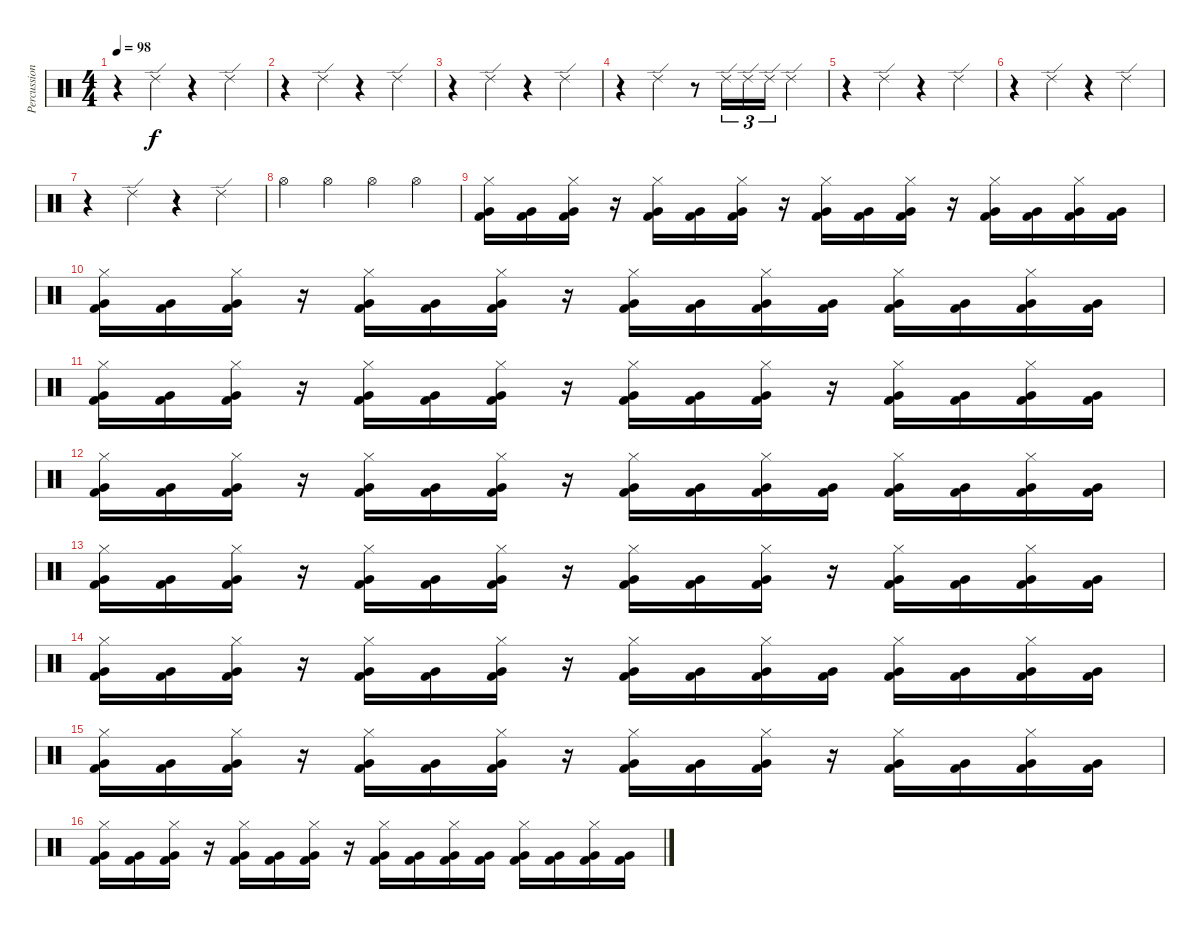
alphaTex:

\track ("Percussion" "Percussion") {instrument percussion}
\staff {score}
\articulation defaults
\ts (4 4)
\tempo 98
\clef neutral
\ks c
r.4{dy f} "Ride (edge) 2".4 r.4 "Ride (edge) 2".4 |
r.4 "Ride (edge) 2".4 r.4 "Ride (edge) 2".4 |
r.4 "Ride (edge) 2".4 r.4 "Ride (edge) 2".4 |
r.4 "Ride (edge) 2".4 r.8 "Ride (edge) 2".16{tu (3 2)} "Ride (edge) 2".16{tu (3 2)} "Ride (edge) 2".16{tu (3 2)} "Ride (edge) 2".4 |
r.4 "Ride (edge) 2".4 r.4 "Ride (edge) 2".4 |
r.4 "Ride (edge) 2".4 r.4 "Ride (edge) 2".4 |
r.4 "Ride (edge) 2".4 r.4 "Ride (edge) 2".4 |
"Hi-Hat (open)".4 "Hi-Hat (open)".4 "Hi-Hat (open)".4 "Hi-Hat (open)".4 |
("Hi-Hat (closed)" "Very Low Tom (hit)" "Kick (hit) 2").16 ("Very Low Tom (hit)" "Kick (hit) 2").16 ("Hi-Hat (closed)" "Very Low Tom (hit)" "Kick (hit) 2").16 r.16 ("Hi-Hat (closed)" "Very Low Tom (hit)" "Kick (hit) 2").16 ("Very Low Tom (hit)" "Kick (hit) 2").16 ("Hi-Hat (closed)" "Very Low Tom (hit)" "Kick (hit) 2").16 r.16 ("Hi-Hat (closed)" "Very Low Tom (hit)" "Kick (hit) 2").16 ("Very Low Tom (hit)" "Kick (hit) 2").16 ("Hi-Hat (closed)" "Very Low Tom (hit)" "Kick (hit) 2").16 r.16 ("Hi-Hat (closed)" "Very Low Tom (hit)" "Kick (hit) 2").16 ("Very Low Tom (hit)" "Kick (hit) 2").16 ("Hi-Hat (closed)" "Very Low Tom (hit)" "Kick (hit) 2").16 ("Very Low Tom (hit)" "Kick (hit) 2").16 |
("Hi-Hat (closed)" "Very Low Tom (hit)" "Kick (hit) 2").16 ("Very Low Tom (hit)" "Kick (hit) 2").16 ("Hi-Hat (closed)" "Very Low Tom (hit)" "Kick (hit) 2").16 r.16 ("Hi-Hat (closed)" "Very Low Tom (hit)" "Kick (hit) 2").16 ("Very Low Tom (hit)" "Kick (hit) 2").16 ("Hi-Hat (closed)" "Very Low Tom (hit)" "Kick (hit) 2").16 r.16 ("Hi-Hat (closed)" "Very Low Tom (hit)" "Kick (hit) 2").16 ("Very Low Tom (hit)" "Kick (hit) 2").16 ("Hi-Hat (closed)" "Very Low Tom (hit)" "Kick (hit) 2").16 ("Very Low Tom (hit)" "Kick (hit) 2").16 ("Hi-Hat (closed)" "Very Low Tom (hit)" "Kick (hit) 2").16 ("Very Low Tom (hit)" "Kick (hit) 2").16 ("Hi-Hat (closed)" "Very Low Tom (hit)" "Kick (hit) 2").16 ("Very Low Tom (hit)" "Kick (hit) 2").16 |
("Hi-Hat (closed)" "Very Low Tom (hit)" "Kick (hit) 2").16 ("Very Low Tom (hit)" "Kick (hit) 2").16 ("Hi-Hat (closed)" "Very Low Tom (hit)" "Kick (hit) 2").16 r.16 ("Hi-Hat (closed)" "Very Low Tom (hit)" "Kick (hit) 2").16 ("Very Low Tom (hit)" "Kick (hit) 2").16 ("Hi-Hat (closed)" "Very Low Tom (hit)" "Kick (hit) 2").16 r.16 ("Hi-Hat (closed)" "Very Low Tom (hit)" "Kick (hit) 2").16 ("Very Low Tom (hit)" "Kick (hit) 2").16 ("Hi-Hat (closed)" "Very Low Tom (hit)" "Kick (hit) 2").16 r.16 ("Hi-Hat (closed)" "Very Low Tom (hit)" "Kick (hit) 2").16 ("Very Low Tom (hit)" "Kick (hit) 2").16 ("Hi-Hat (closed)" "Very Low Tom (hit)" "Kick (hit) 2").16 ("Very Low Tom (hit)" "Kick (hit) 2").16 |
("Hi-Hat (closed)" "Very Low Tom (hit)" "Kick (hit) 2").16 ("Very Low Tom (hit)" "Kick (hit) 2").16 ("Hi-Hat (closed)" "Very Low Tom (hit)" "Kick (hit) 2").16 r.16 ("Hi-Hat (closed)" "Very Low Tom (hit)" "Kick (hit) 2").16 ("Very Low Tom (hit)" "Kick (hit) 2").16 ("Hi-Hat (closed)" "Very Low Tom (hit)" "Kick (hit) 2").16 r.16 ("Hi-Hat (closed)" "Very Low Tom (hit)" "Kick (hit) 2").16 ("Very Low Tom (hit)" "Kick (hit) 2").16 ("Hi-Hat (closed)" "Very Low Tom (hit)" "Kick (hit) 2").16 ("Very Low Tom (hit)" "Kick (hit) 2").16 ("Hi-Hat (closed)" "Very Low Tom (hit)" "Kick (hit) 2").16 ("Very Low Tom (hit)" "Kick (hit) 2").16 ("Hi-Hat (closed)" "Very Low Tom (hit)" "Kick (hit) 2").16 ("Very Low Tom (hit)" "Kick (hit) 2").16 |
("Hi-Hat (closed)" "Very Low Tom (hit)" "Kick (hit) 2").16 ("Very Low Tom (hit)" "Kick (hit) 2").16 ("Hi-Hat (closed)" "Very Low Tom (hit)" "Kick (hit) 2").16 r.16 ("Hi-Hat (closed)" "Very Low Tom (hit)" "Kick (hit) 2").16 ("Very Low Tom (hit)" "Kick (hit) 2").16 ("Hi-Hat (closed)" "Very Low Tom (hit)" "Kick (hit) 2").16 r.16 ("Hi-Hat (closed)" "Very Low Tom (hit)" "Kick (hit) 2").16 ("Very Low Tom (hit)" "Kick (hit) 2").16 ("Hi-Hat (closed)" "Very Low Tom (hit)" "Kick (hit) 2").16 r.16 ("Hi-Hat (closed)" "Very Low Tom (hit)" "Kick (hit) 2").16 ("Very Low Tom (hit)" "Kick (hit) 2").16 ("Hi-Hat (closed)" "Very Low Tom (hit)" "Kick (hit) 2").16 ("Very Low Tom (hit)" "Kick (hit) 2").16 |
("Hi-Hat (closed)" "Very Low Tom (hit)" "Kick (hit) 2").16 ("Very Low Tom (hit)" "Kick (hit) 2").16 ("Hi-Hat (closed)" "Very Low Tom (hit)" "Kick (hit) 2").16 r.16 ("Hi-Hat (closed)" "Very Low Tom (hit)" "Kick (hit) 2").16 ("Very Low Tom (hit)" "Kick (hit) 2").16 ("Hi-Hat (closed)" "Very Low Tom (hit)" "Kick (hit) 2").16 r.16 ("Hi-Hat (closed)" "Very Low Tom (hit)" "Kick (hit) 2").16 ("Very Low Tom (hit)" "Kick (hit) 2").16 ("Hi-Hat (closed)" "Very Low Tom (hit)" "Kick (hit) 2").16 ("Very Low Tom (hit)" "Kick (hit) 2").16 ("Hi-Hat (closed)" "Very Low Tom (hit)" "Kick (hit) 2").16 ("Very Low Tom (hit)" "Kick (hit) 2").16 ("Hi-Hat (closed)" "Very Low Tom (hit)" "Kick (hit) 2").16 ("Very Low Tom (hit)" "Kick (hit) 2").16 |
("Hi-Hat (closed)" "Very Low Tom (hit)" "Kick (hit) 2").16 ("Very Low Tom (hit)" "Kick (hit) 2").16 ("Hi-Hat (closed)" "Very Low Tom (hit)" "Kick (hit) 2").16 r.16 ("Hi-Hat (closed)" "Very Low Tom (hit)" "Kick (hit) 2").16 ("Very Low Tom (hit)" "Kick (hit) 2").16 ("Hi-Hat (closed)" "Very Low Tom (hit)" "Kick (hit) 2").16 r.16 ("Hi-Hat (closed)" "Very Low Tom (hit)" "Kick (hit) 2").16 ("Very Low Tom (hit)" "Kick (hit) 2").16 ("Hi-Hat (closed)" "Very Low Tom (hit)" "Kick (hit) 2").16 r.16 ("Hi-Hat (closed)" "Very Low Tom (hit)" "Kick (hit) 2").16 ("Very Low Tom (hit)" "Kick (hit) 2").16 ("Hi-Hat (closed)" "Very Low Tom (hit)" "Kick (hit) 2").16 ("Very Low Tom (hit)" "Kick (hit) 2").16 |
("Hi-Hat (closed)" "Very Low Tom (hit)" "Kick (hit) 2").16 ("Very Low Tom (hit)" "Kick (hit) 2").16 ("Hi-Hat (closed)" "Very Low Tom (hit)" "Kick (hit) 2").16 r.16 ("Hi-Hat (closed)" "Very Low Tom (hit)" "Kick (hit) 2").16 ("Very Low Tom (hit)" "Kick (hit) 2").16 ("Hi-Hat (closed)" "Very Low Tom (hit)" "Kick (hit) 2").16 r.16 ("Hi-Hat (closed)" "Very Low Tom (hit)" "Kick (hit) 2").16 ("Very Low Tom (hit)" "Kick (hit) 2").16 ("Hi-Hat (closed)" "Very Low Tom (hit)" "Kick (hit) 2").16 ("Very Low Tom (hit)" "Kick (hit) 2").16 ("Hi-Hat (closed)" "Very Low Tom (hit)" "Kick (hit) 2").16 ("Very Low Tom (hit)" "Kick (hit) 2").16 ("Hi-Hat (closed)" "Very Low Tom (hit)" "Kick (hit) 2").16 ("Very Low Tom (hit)" "Kick (hit) 2").16
